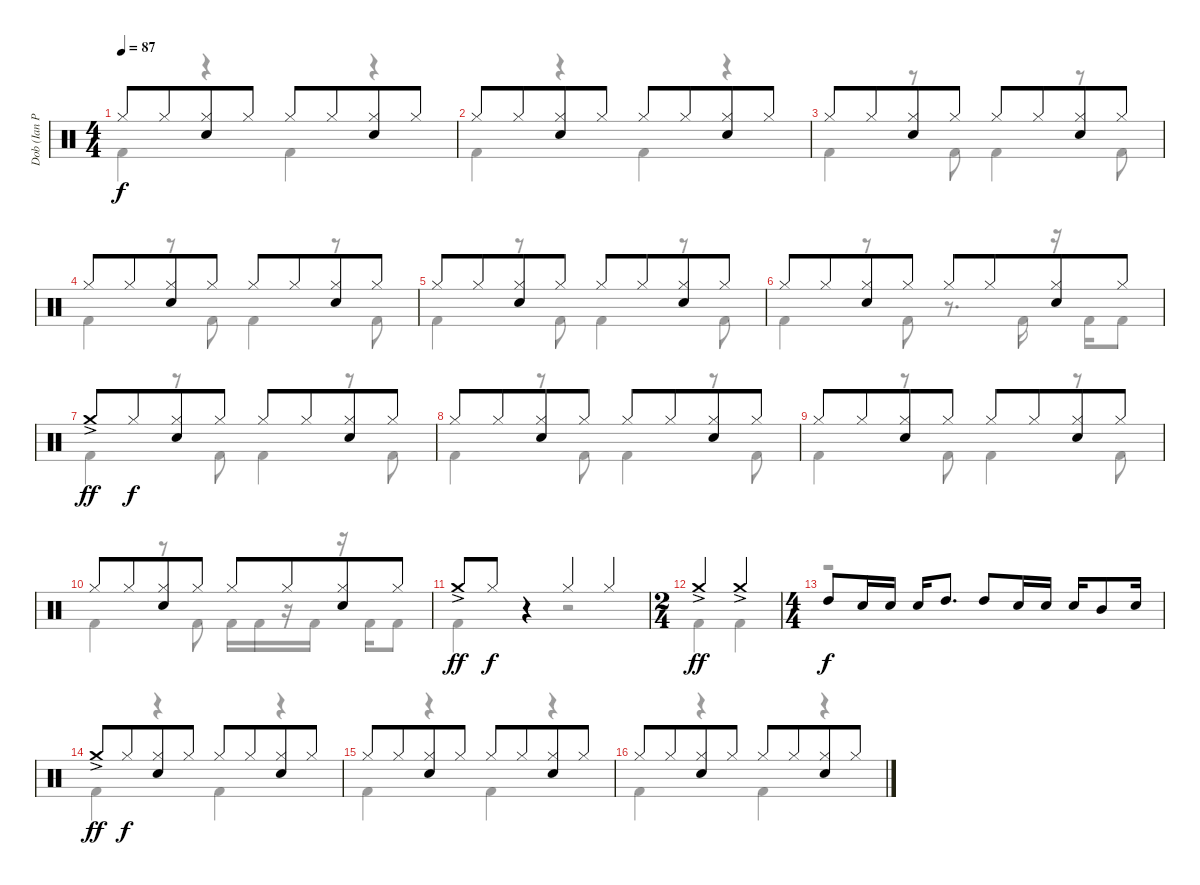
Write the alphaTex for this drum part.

\track ("Dob (Ian Paice)" "Dob (Ian P") {instrument percussion}
\staff {score}
\articulation defaults
\voice
\ts (4 4)
\tempo 87
\clef neutral
\ks c "Hi-Hat (closed)".8{dy f} "Hi-Hat (closed)".8{beam merge}
("Hi-Hat (closed)" "Electric Snare (hit)").8 "Hi-Hat (closed)".8 "Hi-Hat (closed)".8 "Hi-Hat (closed)".8{beam merge} ("Hi-Hat (closed)" "Electric Snare (hit)").8 "Hi-Hat (closed)".8 |
"Hi-Hat (closed)".8 "Hi-Hat (closed)".8{beam merge} ("Hi-Hat (closed)" "Electric Snare (hit)").8 "Hi-Hat (closed)".8 "Hi-Hat (closed)".8 "Hi-Hat (closed)".8{beam merge} ("Hi-Hat (closed)" "Electric Snare (hit)").8 "Hi-Hat (closed)".8 |
"Hi-Hat (closed)".8 "Hi-Hat (closed)".8{beam merge} ("Hi-Hat (closed)" "Electric Snare (hit)").8 "Hi-Hat (closed)".8 "Hi-Hat (closed)".8 "Hi-Hat (closed)".8{beam merge} ("Hi-Hat (closed)" "Electric Snare (hit)").8 "Hi-Hat (closed)".8 |
"Hi-Hat (closed)".8 "Hi-Hat (closed)".8{beam merge} ("Hi-Hat (closed)" "Electric Snare (hit)").8 "Hi-Hat (closed)".8 "Hi-Hat (closed)".8 "Hi-Hat (closed)".8{beam merge} ("Hi-Hat (closed)" "Electric Snare (hit)").8 "Hi-Hat (closed)".8 |
"Hi-Hat (closed)".8 "Hi-Hat (closed)".8{beam merge} ("Hi-Hat (closed)" "Electric Snare (hit)").8 "Hi-Hat (closed)".8 "Hi-Hat (closed)".8 "Hi-Hat (closed)".8{beam merge} ("Hi-Hat (closed)" "Electric Snare (hit)").8 "Hi-Hat (closed)".8 |
"Hi-Hat (closed)".8 "Hi-Hat (closed)".8{beam merge} ("Hi-Hat (closed)" "Electric Snare (hit)").8 "Hi-Hat (closed)".8 "Hi-Hat (closed)".8 "Hi-Hat (closed)".8{beam merge} ("Hi-Hat (closed)" "Electric Snare (hit)").8 "Hi-Hat (closed)".8 |
"Crash medium (hit)"{ac}.8{dy ff} "Hi-Hat (closed)".8{dy f beam merge} ("Hi-Hat (closed)" "Electric Snare (hit)").8 "Hi-Hat (closed)".8 "Hi-Hat (closed)".8 "Hi-Hat (closed)".8{beam merge} ("Hi-Hat (closed)" "Electric Snare (hit)").8 "Hi-Hat (closed)".8 |
"Hi-Hat (closed)".8 "Hi-Hat (closed)".8{beam merge} ("Hi-Hat (closed)" "Electric Snare (hit)").8 "Hi-Hat (closed)".8 "Hi-Hat (closed)".8 "Hi-Hat (closed)".8{beam merge} ("Hi-Hat (closed)" "Electric Snare (hit)").8 "Hi-Hat (closed)".8 |
"Hi-Hat (closed)".8 "Hi-Hat (closed)".8{beam merge} ("Hi-Hat (closed)" "Electric Snare (hit)").8 "Hi-Hat (closed)".8 "Hi-Hat (closed)".8 "Hi-Hat (closed)".8{beam merge} ("Hi-Hat (closed)" "Electric Snare (hit)").8 "Hi-Hat (closed)".8 |
"Hi-Hat (closed)".8 "Hi-Hat (closed)".8{beam merge} ("Hi-Hat (closed)" "Electric Snare (hit)").8 "Hi-Hat (closed)".8 "Hi-Hat (closed)".8 "Hi-Hat (closed)".8{beam merge} ("Hi-Hat (closed)" "Electric Snare (hit)").8 "Hi-Hat (closed)".8 |
"Crash medium (hit)"{ac}.8{dy ff} "Hi-Hat (closed)".8{dy f} r.4 "Hi-Hat (closed)".4 "Hi-Hat (closed)".4 |
\ts (2 4)
"Crash medium (hit)"{ac}.4{dy ff} "Crash medium (hit)"{ac}.4 |
\ts (4 4)
"High Tom (hit)".8{dy f} "Electric Snare (hit)".16 "Electric Snare (hit)".16 "Electric Snare (hit)".16 "High Tom (hit)".8{d} "High Tom (hit)".8 "Electric Snare (hit)".16 "Electric Snare (hit)".16 "Electric Snare (hit)".16 "Mid Tom (hit)".8 "Electric Snare (hit)".16 |
"Crash medium (hit)"{ac}.8{dy ff} "Hi-Hat (closed)".8{dy f beam merge} ("Hi-Hat (closed)" "Electric Snare (hit)").8 "Hi-Hat (closed)".8 "Hi-Hat (closed)".8 "Hi-Hat (closed)".8{beam merge} ("Hi-Hat (closed)" "Electric Snare (hit)").8 "Hi-Hat (closed)".8 |
"Hi-Hat (closed)".8 "Hi-Hat (closed)".8{beam merge} ("Hi-Hat (closed)" "Electric Snare (hit)").8 "Hi-Hat (closed)".8 "Hi-Hat (closed)".8 "Hi-Hat (closed)".8{beam merge} ("Hi-Hat (closed)" "Electric Snare (hit)").8 "Hi-Hat (closed)".8 |
"Hi-Hat (closed)".8 "Hi-Hat (closed)".8{beam merge} ("Hi-Hat (closed)" "Electric Snare (hit)").8 "Hi-Hat (closed)".8 "Hi-Hat (closed)".8 "Hi-Hat (closed)".8{beam merge} ("Hi-Hat (closed)" "Electric Snare (hit)").8 "Hi-Hat (closed)".8
\voice
\clef neutral
\ottava regular
\simile none
\ks c "Kick (hit) 2".4{dy f}
r.4 "Kick (hit) 2".4 r.4 |
"Kick (hit) 2".4 r.4 "Kick (hit) 2".4 r.4 |
"Kick (hit) 2".4 r.8 "Kick (hit) 2".8 "Kick (hit) 2".4 r.8 "Kick (hit) 2".8 |
"Kick (hit) 2".4 r.8 "Kick (hit) 2".8 "Kick (hit) 2".4 r.8 "Kick (hit) 2".8 |
"Kick (hit) 2".4 r.8 "Kick (hit) 2".8 "Kick (hit) 2".4 r.8 "Kick (hit) 2".8 |
"Kick (hit) 2".4 r.8 "Kick (hit) 2".8 r.8{d} "Kick (hit) 2".16 r.16 "Kick (hit) 2".16 "Kick (hit) 2".8 |
"Kick (hit) 2".4 r.8 "Kick (hit) 2".8 "Kick (hit) 2".4 r.8 "Kick (hit) 2".8 |
"Kick (hit) 2".4 r.8 "Kick (hit) 2".8 "Kick (hit) 2".4 r.8 "Kick (hit) 2".8 |
"Kick (hit) 2".4 r.8 "Kick (hit) 2".8 "Kick (hit) 2".4 r.8 "Kick (hit) 2".8 |
"Kick (hit) 2".4 r.8 "Kick (hit) 2".8 "Kick (hit) 2".16 "Kick (hit) 2".16 r.16 "Kick (hit) 2".16 r.16 "Kick (hit) 2".16 "Kick (hit) 2".8 |
"Kick (hit) 2".4 r.4 r.2 |
"Kick (hit) 2".4 "Kick (hit) 2".4 |
r.1 |
"Kick (hit) 2".4 r.4 "Kick (hit) 2".4 r.4 |
"Kick (hit) 2".4 r.4 "Kick (hit) 2".4 r.4 |
"Kick (hit) 2".4 r.4 "Kick (hit) 2".4 r.4
